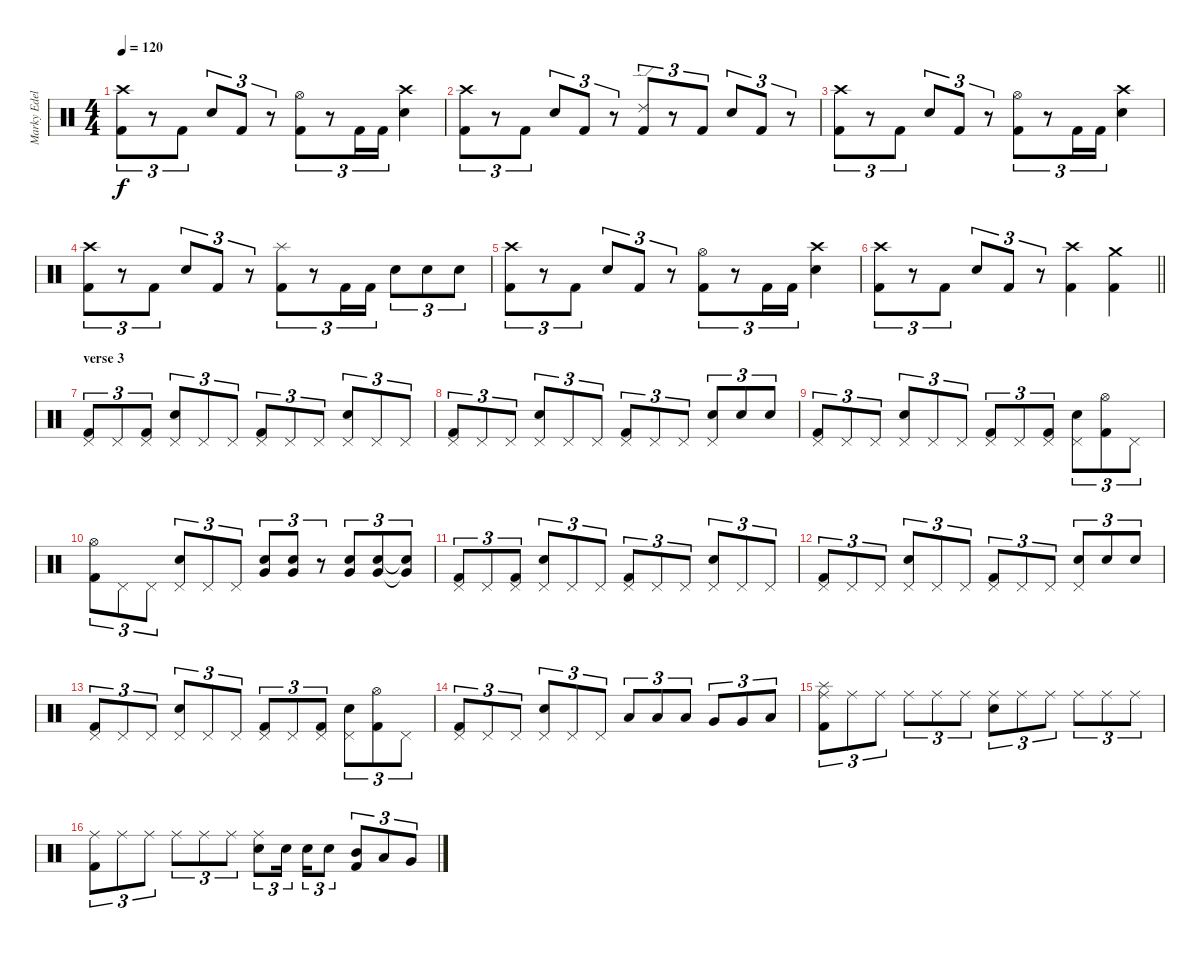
\track ("Marky Edelmann" "Marky Edel") {instrument percussion}
\staff {score}
\articulation defaults
\ts (4 4)
\tempo 120
\clef neutral
\ks c
("Crash high (hit)" "Kick (hit) 2").8{tu (3 2) dy f} r.8{tu (3 2)} "Kick (hit) 2".8{tu (3 2)} "Snare (hit) 2".8{tu (3 2)} "Kick (hit) 2".8{tu (3 2)} r.8{tu (3 2)} ("Hi-Hat (open)" "Kick (hit) 2").8{tu (3 2)} r.8{tu (3 2)} "Kick (hit) 2".16{tu (3 2)} "Kick (hit) 2".16{tu (3 2)} ("Crash high (hit)" "Snare (hit) 2").4 |
("Crash high (hit)" "Kick (hit) 2").8{tu (3 2)} r.8{tu (3 2)} "Kick (hit) 2".8{tu (3 2)} "Snare (hit) 2".8{tu (3 2)} "Kick (hit) 2".8{tu (3 2)} r.8{tu (3 2)} ("Ride (edge) 2" "Kick (hit) 2").8{tu (3 2)} r.8{tu (3 2)} "Kick (hit) 2".8{tu (3 2)} "Snare (hit) 2".8{tu (3 2)} "Kick (hit) 2".8{tu (3 2)} r.8{tu (3 2)} |
("Crash high (hit)" "Kick (hit) 2").8{tu (3 2)} r.8{tu (3 2)} "Kick (hit) 2".8{tu (3 2)} "Snare (hit) 2".8{tu (3 2)} "Kick (hit) 2".8{tu (3 2)} r.8{tu (3 2)} ("Hi-Hat (open)" "Kick (hit) 2").8{tu (3 2)} r.8{tu (3 2)} "Kick (hit) 2".16{tu (3 2)} "Kick (hit) 2".16{tu (3 2)} ("Crash high (hit)" "Snare (hit) 2").4 |
("Crash high (hit)" "Kick (hit) 2").8{tu (3 2)} r.8{tu (3 2)} "Kick (hit) 2".8{tu (3 2)} "Snare (hit) 2".8{tu (3 2)} "Kick (hit) 2".8{tu (3 2)} r.8{tu (3 2)} ("Splash (hit)" "Kick (hit) 2").8{tu (3 2)} r.8{tu (3 2)} "Kick (hit) 2".16{tu (3 2)} "Kick (hit) 2".16{tu (3 2)} "Snare (hit) 2".8{tu (3 2)} "Snare (hit) 2".8{tu (3 2)} "Snare (hit) 2".8{tu (3 2)} |
("Crash high (hit)" "Kick (hit) 2").8{tu (3 2)} r.8{tu (3 2)} "Kick (hit) 2".8{tu (3 2)} "Snare (hit) 2".8{tu (3 2)} "Kick (hit) 2".8{tu (3 2)} r.8{tu (3 2)} ("Hi-Hat (open)" "Kick (hit) 2").8{tu (3 2)} r.8{tu (3 2)} "Kick (hit) 2".16{tu (3 2)} "Kick (hit) 2".16{tu (3 2)} ("Crash high (hit)" "Snare (hit) 2").4 |
\barLineRight lightlight
("Crash high (hit)" "Kick (hit) 2").8{tu (3 2)} r.8{tu (3 2)} "Kick (hit) 2".8{tu (3 2)} "Snare (hit) 2".8{tu (3 2)} "Kick (hit) 2".8{tu (3 2)} r.8{tu (3 2)} ("Crash high (hit)" "Kick (hit) 2").4 ("Crash medium (hit)" "Kick (hit) 2").4 |
\section ("" "verse 3")
("Pedal Hi-Hat (hit)" "Kick (hit) 2").8{tu (3 2)} "Pedal Hi-Hat (hit)".8{tu (3 2)} ("Pedal Hi-Hat (hit)" "Kick (hit) 2").8{tu (3 2)} ("Pedal Hi-Hat (hit)" "Snare (hit) 2").8{tu (3 2)} "Pedal Hi-Hat (hit)".8{tu (3 2)} "Pedal Hi-Hat (hit)".8{tu (3 2)} ("Pedal Hi-Hat (hit)" "Kick (hit) 2").8{tu (3 2)} "Pedal Hi-Hat (hit)".8{tu (3 2)} "Pedal Hi-Hat (hit)".8{tu (3 2)} ("Pedal Hi-Hat (hit)" "Snare (hit) 2").8{tu (3 2)} "Pedal Hi-Hat (hit)".8{tu (3 2)} "Pedal Hi-Hat (hit)".8{tu (3 2)} |
("Pedal Hi-Hat (hit)" "Kick (hit) 2").8{tu (3 2)} "Pedal Hi-Hat (hit)".8{tu (3 2)} "Pedal Hi-Hat (hit)".8{tu (3 2)} ("Pedal Hi-Hat (hit)" "Snare (hit) 2").8{tu (3 2)} "Pedal Hi-Hat (hit)".8{tu (3 2)} "Pedal Hi-Hat (hit)".8{tu (3 2)} ("Pedal Hi-Hat (hit)" "Kick (hit) 2").8{tu (3 2)} "Pedal Hi-Hat (hit)".8{tu (3 2)} "Pedal Hi-Hat (hit)".8{tu (3 2)} ("Pedal Hi-Hat (hit)" "Snare (hit) 2").8{tu (3 2)} "Snare (hit) 2".8{tu (3 2)} "Snare (hit) 2".8{tu (3 2)} |
("Pedal Hi-Hat (hit)" "Kick (hit) 2").8{tu (3 2)} "Pedal Hi-Hat (hit)".8{tu (3 2)} "Pedal Hi-Hat (hit)".8{tu (3 2)} ("Pedal Hi-Hat (hit)" "Snare (hit) 2").8{tu (3 2)} "Pedal Hi-Hat (hit)".8{tu (3 2)} "Pedal Hi-Hat (hit)".8{tu (3 2)} ("Pedal Hi-Hat (hit)" "Kick (hit) 2").8{tu (3 2)} "Pedal Hi-Hat (hit)".8{tu (3 2)} ("Pedal Hi-Hat (hit)" "Kick (hit) 2").8{tu (3 2)} ("Pedal Hi-Hat (hit)" "Snare (hit) 2").8{tu (3 2)} ("Hi-Hat (open)" "Kick (hit) 2").8{tu (3 2)} "Pedal Hi-Hat (hit)".8{tu (3 2)} |
("Hi-Hat (open)" "Kick (hit) 2").8{tu (3 2)} "Pedal Hi-Hat (hit)".8{tu (3 2)} "Pedal Hi-Hat (hit)".8{tu (3 2)} ("Pedal Hi-Hat (hit)" "Snare (hit) 2").8{tu (3 2)} "Pedal Hi-Hat (hit)".8{tu (3 2)} "Pedal Hi-Hat (hit)".8{tu (3 2)} ("Very Low Tom (hit)" "Snare (hit) 2").8{tu (3 2)} ("Very Low Tom (hit)" "Snare (hit) 2").8{tu (3 2)} r.8{tu (3 2)} ("Very Low Tom (hit)" "Snare (hit) 2").8{tu (3 2)} ("Very Low Tom (hit)" "Snare (hit) 2").8{tu (3 2)} ("Very Low Tom (hit)"{t} "Snare (hit) 2"{t}).8{tu (3 2)} |
("Pedal Hi-Hat (hit)" "Kick (hit) 2").8{tu (3 2)} "Pedal Hi-Hat (hit)".8{tu (3 2)} ("Pedal Hi-Hat (hit)" "Kick (hit) 2").8{tu (3 2)} ("Pedal Hi-Hat (hit)" "Snare (hit) 2").8{tu (3 2)} "Pedal Hi-Hat (hit)".8{tu (3 2)} "Pedal Hi-Hat (hit)".8{tu (3 2)} ("Pedal Hi-Hat (hit)" "Kick (hit) 2").8{tu (3 2)} "Pedal Hi-Hat (hit)".8{tu (3 2)} "Pedal Hi-Hat (hit)".8{tu (3 2)} ("Pedal Hi-Hat (hit)" "Snare (hit) 2").8{tu (3 2)} "Pedal Hi-Hat (hit)".8{tu (3 2)} "Pedal Hi-Hat (hit)".8{tu (3 2)} |
("Pedal Hi-Hat (hit)" "Kick (hit) 2").8{tu (3 2)} "Pedal Hi-Hat (hit)".8{tu (3 2)} "Pedal Hi-Hat (hit)".8{tu (3 2)} ("Pedal Hi-Hat (hit)" "Snare (hit) 2").8{tu (3 2)} "Pedal Hi-Hat (hit)".8{tu (3 2)} "Pedal Hi-Hat (hit)".8{tu (3 2)} ("Pedal Hi-Hat (hit)" "Kick (hit) 2").8{tu (3 2)} "Pedal Hi-Hat (hit)".8{tu (3 2)} "Pedal Hi-Hat (hit)".8{tu (3 2)} ("Pedal Hi-Hat (hit)" "Snare (hit) 2").8{tu (3 2)} "Snare (hit) 2".8{tu (3 2)} "Snare (hit) 2".8{tu (3 2)} |
("Pedal Hi-Hat (hit)" "Kick (hit) 2").8{tu (3 2)} "Pedal Hi-Hat (hit)".8{tu (3 2)} "Pedal Hi-Hat (hit)".8{tu (3 2)} ("Pedal Hi-Hat (hit)" "Snare (hit) 2").8{tu (3 2)} "Pedal Hi-Hat (hit)".8{tu (3 2)} "Pedal Hi-Hat (hit)".8{tu (3 2)} ("Pedal Hi-Hat (hit)" "Kick (hit) 2").8{tu (3 2)} "Pedal Hi-Hat (hit)".8{tu (3 2)} ("Pedal Hi-Hat (hit)" "Kick (hit) 2").8{tu (3 2)} ("Pedal Hi-Hat (hit)" "Snare (hit) 2").8{tu (3 2)} ("Hi-Hat (open)" "Kick (hit) 2").8{tu (3 2)} "Pedal Hi-Hat (hit)".8{tu (3 2)} |
("Pedal Hi-Hat (hit)" "Kick (hit) 2").8{tu (3 2)} "Pedal Hi-Hat (hit)".8{tu (3 2)} "Pedal Hi-Hat (hit)".8{tu (3 2)} ("Pedal Hi-Hat (hit)" "Snare (hit) 2").8{tu (3 2)} "Pedal Hi-Hat (hit)".8{tu (3 2)} "Pedal Hi-Hat (hit)".8{tu (3 2)} "Low Tom (hit)".8{tu (3 2)} "Low Tom (hit)".8{tu (3 2)} "Low Tom (hit)".8{tu (3 2)} "Very Low Tom (hit)".8{tu (3 2)} "Very Low Tom (hit)".8{tu (3 2)} "Low Floor Tom (hit)".8{tu (3 2)} |
("Ride (middle)" "Splash (hit)" "Kick (hit) 2").8{tu (3 2)} "Ride (middle)".8{tu (3 2)} "Ride (middle)".8{tu (3 2)} "Ride (middle)".8{tu (3 2)} "Ride (middle)".8{tu (3 2)} "Ride (middle)".8{tu (3 2)} ("Ride (middle)" "Snare (hit) 2").8{tu (3 2)} "Ride (middle)".8{tu (3 2)} "Ride (middle)".8{tu (3 2)} "Ride (middle)".8{tu (3 2)} "Ride (middle)".8{tu (3 2)} "Ride (middle)".8{tu (3 2)} |
("Ride (middle)" "Kick (hit) 2").8{tu (3 2)} "Ride (middle)".8{tu (3 2)} "Ride (middle)".8{tu (3 2)} "Ride (middle)".8{tu (3 2)} "Ride (middle)".8{tu (3 2)} "Ride (middle)".8{tu (3 2)} ("Ride (middle)" "Snare (hit) 2").8{tu (3 2)} "Snare (hit) 2".16{tu (3 2) beam splitsecondary} "Snare (hit) 2".16{tu (3 2)} "Snare (hit) 2".8{tu (3 2)} ("Mid Tom (hit)" "Kick (hit) 2").8{tu (3 2)} "Low Tom (hit)".8{tu (3 2)} "Very Low Tom (hit)".8{tu (3 2)}
